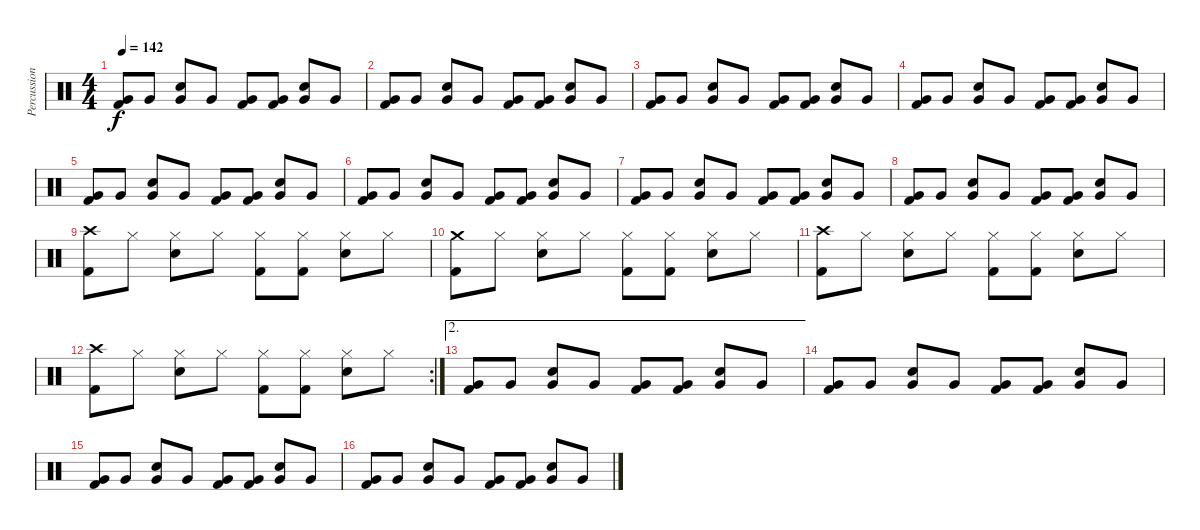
\track ("Percussion" "Percussion") {instrument percussion}
\staff {score}
\articulation defaults
\ts (4 4)
\tempo 142
\clef neutral
\ks c
("Very Low Tom (hit)" "Kick (hit) 2").8{dy f} "Very Low Tom (hit)".8 ("Very Low Tom (hit)" "Electric Snare (hit)").8 "Very Low Tom (hit)".8 ("Very Low Tom (hit)" "Kick (hit) 2").8 ("Very Low Tom (hit)" "Kick (hit) 2").8 ("Very Low Tom (hit)" "Electric Snare (hit)").8 "Very Low Tom (hit)".8 |
("Very Low Tom (hit)" "Kick (hit) 2").8 "Very Low Tom (hit)".8 ("Very Low Tom (hit)" "Electric Snare (hit)").8 "Very Low Tom (hit)".8 ("Very Low Tom (hit)" "Kick (hit) 2").8 ("Very Low Tom (hit)" "Kick (hit) 2").8 ("Very Low Tom (hit)" "Electric Snare (hit)").8 "Very Low Tom (hit)".8 |
("Very Low Tom (hit)" "Kick (hit) 2").8 "Very Low Tom (hit)".8 ("Very Low Tom (hit)" "Electric Snare (hit)").8 "Very Low Tom (hit)".8 ("Very Low Tom (hit)" "Kick (hit) 2").8 ("Very Low Tom (hit)" "Kick (hit) 2").8 ("Very Low Tom (hit)" "Electric Snare (hit)").8 "Very Low Tom (hit)".8 |
("Very Low Tom (hit)" "Kick (hit) 2").8 "Very Low Tom (hit)".8 ("Very Low Tom (hit)" "Electric Snare (hit)").8 "Very Low Tom (hit)".8 ("Very Low Tom (hit)" "Kick (hit) 2").8 ("Very Low Tom (hit)" "Kick (hit) 2").8 ("Very Low Tom (hit)" "Electric Snare (hit)").8 "Very Low Tom (hit)".8 |
("Very Low Tom (hit)" "Kick (hit) 2").8 "Very Low Tom (hit)".8 ("Very Low Tom (hit)" "Electric Snare (hit)").8 "Very Low Tom (hit)".8 ("Very Low Tom (hit)" "Kick (hit) 2").8 ("Very Low Tom (hit)" "Kick (hit) 2").8 ("Very Low Tom (hit)" "Electric Snare (hit)").8 "Very Low Tom (hit)".8 |
("Very Low Tom (hit)" "Kick (hit) 2").8 "Very Low Tom (hit)".8 ("Very Low Tom (hit)" "Electric Snare (hit)").8 "Very Low Tom (hit)".8 ("Very Low Tom (hit)" "Kick (hit) 2").8 ("Very Low Tom (hit)" "Kick (hit) 2").8 ("Very Low Tom (hit)" "Electric Snare (hit)").8 "Very Low Tom (hit)".8 |
("Very Low Tom (hit)" "Kick (hit) 2").8 "Very Low Tom (hit)".8 ("Very Low Tom (hit)" "Electric Snare (hit)").8 "Very Low Tom (hit)".8 ("Very Low Tom (hit)" "Kick (hit) 2").8 ("Very Low Tom (hit)" "Kick (hit) 2").8 ("Very Low Tom (hit)" "Electric Snare (hit)").8 "Very Low Tom (hit)".8 |
("Very Low Tom (hit)" "Kick (hit) 2").8 "Very Low Tom (hit)".8 ("Very Low Tom (hit)" "Electric Snare (hit)").8 "Very Low Tom (hit)".8 ("Very Low Tom (hit)" "Kick (hit) 2").8 ("Very Low Tom (hit)" "Kick (hit) 2").8 ("Very Low Tom (hit)" "Electric Snare (hit)").8 "Very Low Tom (hit)".8 |
("Crash high (hit)" "Kick (hit) 2").8 "Hi-Hat (closed)".8 ("Hi-Hat (closed)" "Electric Snare (hit)").8 "Hi-Hat (closed)".8 ("Hi-Hat (closed)" "Kick (hit) 2").8 ("Hi-Hat (closed)" "Kick (hit) 2").8 ("Hi-Hat (closed)" "Electric Snare (hit)").8 "Hi-Hat (closed)".8 |
("Crash medium (hit)" "Kick (hit) 2").8 "Hi-Hat (closed)".8 ("Hi-Hat (closed)" "Electric Snare (hit)").8 "Hi-Hat (closed)".8 ("Hi-Hat (closed)" "Kick (hit) 2").8 ("Hi-Hat (closed)" "Kick (hit) 2").8 ("Hi-Hat (closed)" "Electric Snare (hit)").8 "Hi-Hat (closed)".8 |
("Crash high (hit)" "Kick (hit) 2").8 "Hi-Hat (closed)".8 ("Hi-Hat (closed)" "Electric Snare (hit)").8 "Hi-Hat (closed)".8 ("Hi-Hat (closed)" "Kick (hit) 2").8 ("Hi-Hat (closed)" "Kick (hit) 2").8 ("Hi-Hat (closed)" "Electric Snare (hit)").8 "Hi-Hat (closed)".8 |
\rc 2
("Crash high (hit)" "Kick (hit) 2").8 "Hi-Hat (closed)".8 ("Hi-Hat (closed)" "Electric Snare (hit)").8 "Hi-Hat (closed)".8 ("Hi-Hat (closed)" "Kick (hit) 2").8 ("Hi-Hat (closed)" "Kick (hit) 2").8 ("Hi-Hat (closed)" "Electric Snare (hit)").8 "Hi-Hat (closed)".8 |
\ae 2
("Very Low Tom (hit)" "Kick (hit) 2").8 "Very Low Tom (hit)".8 ("Very Low Tom (hit)" "Electric Snare (hit)").8 "Very Low Tom (hit)".8 ("Very Low Tom (hit)" "Kick (hit) 2").8 ("Very Low Tom (hit)" "Kick (hit) 2").8 ("Very Low Tom (hit)" "Electric Snare (hit)").8 "Very Low Tom (hit)".8 |
("Very Low Tom (hit)" "Kick (hit) 2").8 "Very Low Tom (hit)".8 ("Very Low Tom (hit)" "Electric Snare (hit)").8 "Very Low Tom (hit)".8 ("Very Low Tom (hit)" "Kick (hit) 2").8 ("Very Low Tom (hit)" "Kick (hit) 2").8 ("Very Low Tom (hit)" "Electric Snare (hit)").8 "Very Low Tom (hit)".8 |
("Very Low Tom (hit)" "Kick (hit) 2").8 "Very Low Tom (hit)".8 ("Very Low Tom (hit)" "Electric Snare (hit)").8 "Very Low Tom (hit)".8 ("Very Low Tom (hit)" "Kick (hit) 2").8 ("Very Low Tom (hit)" "Kick (hit) 2").8 ("Very Low Tom (hit)" "Electric Snare (hit)").8 "Very Low Tom (hit)".8 |
("Very Low Tom (hit)" "Kick (hit) 2").8 "Very Low Tom (hit)".8 ("Very Low Tom (hit)" "Electric Snare (hit)").8 "Very Low Tom (hit)".8 ("Very Low Tom (hit)" "Kick (hit) 2").8 ("Very Low Tom (hit)" "Kick (hit) 2").8 ("Very Low Tom (hit)" "Electric Snare (hit)").8 "Very Low Tom (hit)".8
